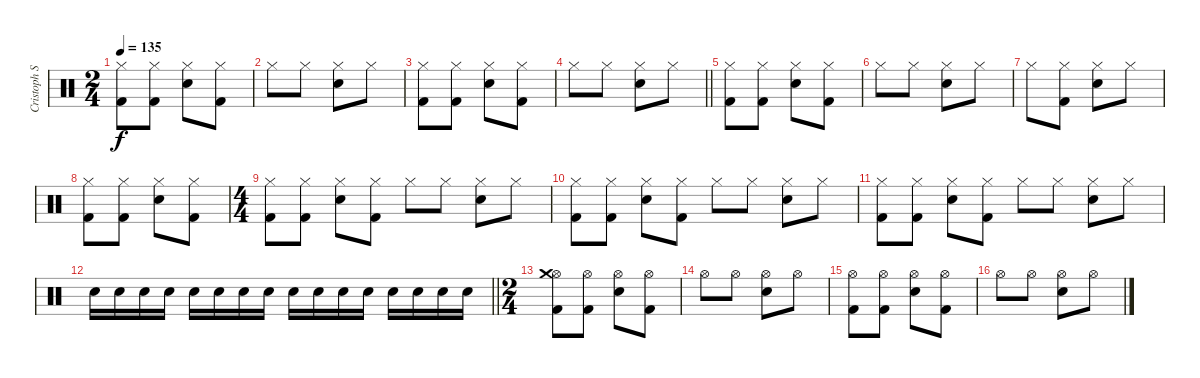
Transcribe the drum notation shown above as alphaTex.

\track ("Cristoph Schneider / Drums" "Cristoph S") {instrument percussion}
\staff {score}
\articulation defaults
\ts (2 4)
\tempo 135
\clef neutral
\ks c
("Hi-Hat (closed)" "Kick (hit) 2").8{dy f} ("Hi-Hat (closed)" "Kick (hit) 2").8 ("Hi-Hat (closed)" "Electric Snare (hit)").8 ("Hi-Hat (closed)" "Kick (hit) 2").8 |
"Hi-Hat (closed)".8 "Hi-Hat (closed)".8 ("Electric Snare (hit)" "Hi-Hat (closed)").8 "Hi-Hat (closed)".8 |
("Hi-Hat (closed)" "Kick (hit) 2").8 ("Hi-Hat (closed)" "Kick (hit) 2").8 ("Hi-Hat (closed)" "Electric Snare (hit)").8 ("Hi-Hat (closed)" "Kick (hit) 2").8 |
\barLineRight lightlight "Hi-Hat (closed)".8 "Hi-Hat (closed)".8
("Hi-Hat (closed)" "Electric Snare (hit)").8 "Hi-Hat (closed)".8 |
("Hi-Hat (closed)" "Kick (hit) 2").8 ("Hi-Hat (closed)" "Kick (hit) 2").8 ("Hi-Hat (closed)" "Electric Snare (hit)").8 ("Hi-Hat (closed)" "Kick (hit) 2").8 |
"Hi-Hat (closed)".8 "Hi-Hat (closed)".8 ("Hi-Hat (closed)" "Electric Snare (hit)").8 "Hi-Hat (closed)".8 |
"Hi-Hat (closed)".8 ("Hi-Hat (closed)" "Kick (hit) 2").8 ("Hi-Hat (closed)" "Electric Snare (hit)").8 "Hi-Hat (closed)".8 |
("Hi-Hat (closed)" "Kick (hit) 2").8 ("Hi-Hat (closed)" "Kick (hit) 2").8 ("Hi-Hat (closed)" "Electric Snare (hit)").8 ("Hi-Hat (closed)" "Kick (hit) 2").8 |
\ts (4 4)
("Hi-Hat (closed)" "Kick (hit) 2").8 ("Hi-Hat (closed)" "Kick (hit) 2").8 ("Hi-Hat (closed)" "Electric Snare (hit)").8 ("Hi-Hat (closed)" "Kick (hit) 2").8 "Hi-Hat (closed)".8 "Hi-Hat (closed)".8 ("Hi-Hat (closed)" "Electric Snare (hit)").8 "Hi-Hat (closed)".8 |
("Hi-Hat (closed)" "Kick (hit) 2").8 ("Hi-Hat (closed)" "Kick (hit) 2").8 ("Hi-Hat (closed)" "Electric Snare (hit)").8 ("Hi-Hat (closed)" "Kick (hit) 2").8 "Hi-Hat (closed)".8 "Hi-Hat (closed)".8 ("Hi-Hat (closed)" "Electric Snare (hit)").8 "Hi-Hat (closed)".8 |
("Hi-Hat (closed)" "Kick (hit) 2").8 ("Hi-Hat (closed)" "Kick (hit) 2").8 ("Hi-Hat (closed)" "Electric Snare (hit)").8 ("Hi-Hat (closed)" "Kick (hit) 2").8 "Hi-Hat (closed)".8 "Hi-Hat (closed)".8 ("Hi-Hat (closed)" "Electric Snare (hit)").8 "Hi-Hat (closed)".8 |
\barLineRight lightlight "Electric Snare (hit)".16 "Electric Snare (hit)".16 "Electric Snare (hit)".16 "Electric Snare (hit)".16 "Electric Snare (hit)".16 "Electric Snare (hit)".16 "Electric Snare (hit)".16 "Electric Snare (hit)".16 "Electric Snare (hit)".16 "Electric Snare (hit)".16 "Electric Snare (hit)".16 "Electric Snare (hit)".16 "Electric Snare (hit)".16 "Electric Snare (hit)".16 "Electric Snare (hit)".16 "Electric Snare (hit)".16
|
\ts (2 4)
("Hi-Hat (open)" "Kick (hit) 2" "Crash medium (hit)").8 ("Hi-Hat (open)" "Kick (hit) 2").8 ("Hi-Hat (open)" "Electric Snare (hit)").8 ("Kick (hit) 2" "Hi-Hat (open)").8 |
"Hi-Hat (open)".8 "Hi-Hat (open)".8 ("Electric Snare (hit)" "Hi-Hat (open)").8 "Hi-Hat (open)".8 |
("Hi-Hat (open)" "Kick (hit) 2").8 ("Hi-Hat (open)" "Kick (hit) 2").8 ("Hi-Hat (open)" "Electric Snare (hit)").8 ("Hi-Hat (open)" "Kick (hit) 2").8 |
"Hi-Hat (open)".8 "Hi-Hat (open)".8 ("Electric Snare (hit)" "Hi-Hat (open)").8 "Hi-Hat (open)".8
